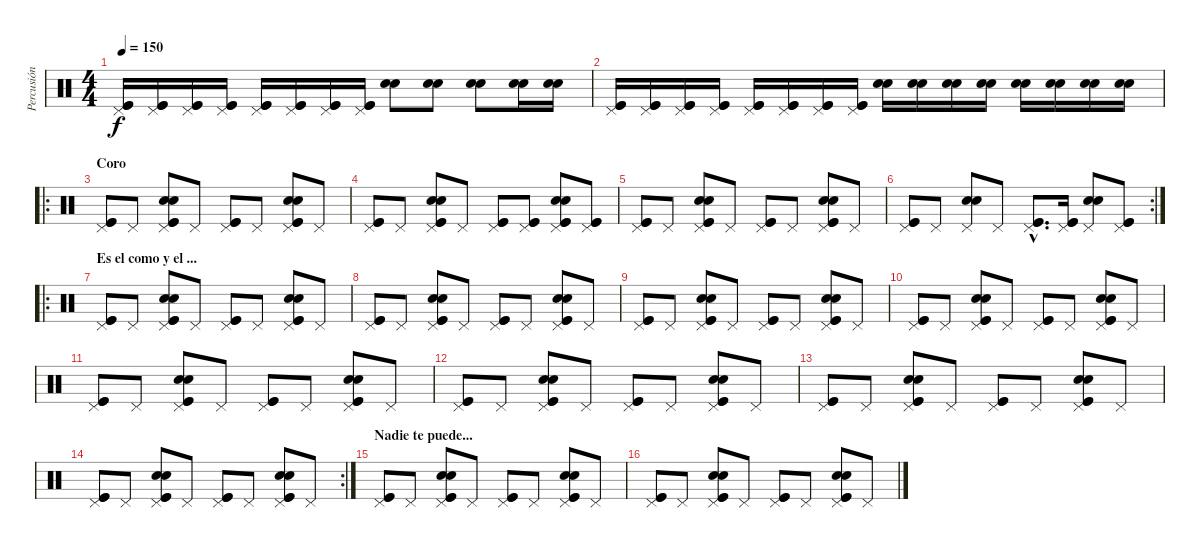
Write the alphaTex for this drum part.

\track ("Percusión" "Percusión") {instrument percussion}
\staff {score}
\articulation defaults
\ts (4 4)
\tempo 150
\clef neutral
\ks c
("Pedal Hi-Hat (hit)" "Kick (hit)" "Kick (hit)").16{dy f} ("Pedal Hi-Hat (hit)" "Kick (hit)" "Kick (hit)").16 ("Pedal Hi-Hat (hit)" "Kick (hit)" "Kick (hit)").16 ("Pedal Hi-Hat (hit)" "Kick (hit)" "Kick (hit)").16 ("Pedal Hi-Hat (hit)" "Kick (hit)" "Kick (hit)").16 ("Pedal Hi-Hat (hit)" "Kick (hit)" "Kick (hit)").16 ("Pedal Hi-Hat (hit)" "Kick (hit)" "Kick (hit)").16 ("Pedal Hi-Hat (hit)" "Kick (hit)" "Kick (hit)").16 ("Snare (hit) 2" "Snare (hit) 2").8 ("Snare (hit) 2" "Snare (hit) 2").8 ("Snare (hit) 2" "Snare (hit) 2").8 ("Snare (hit) 2" "Snare (hit) 2").16 ("Snare (hit) 2" "Snare (hit) 2").16 |
("Pedal Hi-Hat (hit)" "Kick (hit)" "Kick (hit)").16 ("Pedal Hi-Hat (hit)" "Kick (hit)" "Kick (hit)").16 ("Pedal Hi-Hat (hit)" "Kick (hit)" "Kick (hit)").16 ("Pedal Hi-Hat (hit)" "Kick (hit)" "Kick (hit)").16 ("Pedal Hi-Hat (hit)" "Kick (hit)" "Kick (hit)").16 ("Pedal Hi-Hat (hit)" "Kick (hit)" "Kick (hit)").16 ("Pedal Hi-Hat (hit)" "Kick (hit)" "Kick (hit)").16 ("Pedal Hi-Hat (hit)" "Kick (hit)" "Kick (hit)").16 ("Snare (hit) 2" "Snare (hit) 2").16 ("Snare (hit) 2" "Snare (hit) 2").16 ("Snare (hit) 2" "Snare (hit) 2").16 ("Snare (hit) 2" "Snare (hit) 2").16 ("Snare (hit) 2" "Snare (hit) 2").16 ("Snare (hit) 2" "Snare (hit) 2").16 ("Snare (hit) 2" "Snare (hit) 2").16 ("Snare (hit) 2" "Snare (hit) 2").16 |
\ro
\section ("" "Coro")
("Pedal Hi-Hat (hit)" "Kick (hit)" "Kick (hit)").8 "Pedal Hi-Hat (hit)".8 ("Pedal Hi-Hat (hit)" "Snare (hit) 2" "Snare (hit) 2" "Kick (hit)" "Kick (hit)").8 "Pedal Hi-Hat (hit)".8 ("Pedal Hi-Hat (hit)" "Kick (hit)" "Kick (hit)").8 "Pedal Hi-Hat (hit)".8 ("Pedal Hi-Hat (hit)" "Snare (hit) 2" "Snare (hit) 2" "Kick (hit)" "Kick (hit)").8 "Pedal Hi-Hat (hit)".8 |
("Pedal Hi-Hat (hit)" "Kick (hit)" "Kick (hit)").8 "Pedal Hi-Hat (hit)".8 ("Pedal Hi-Hat (hit)" "Snare (hit) 2" "Snare (hit) 2" "Kick (hit)" "Kick (hit)").8 "Pedal Hi-Hat (hit)".8 ("Pedal Hi-Hat (hit)" "Kick (hit)" "Kick (hit)").8 ("Pedal Hi-Hat (hit)" "Kick (hit)" "Kick (hit)").8 ("Pedal Hi-Hat (hit)" "Snare (hit) 2" "Snare (hit) 2" "Kick (hit)" "Kick (hit)").8 ("Pedal Hi-Hat (hit)" "Kick (hit)" "Kick (hit)").8 |
("Pedal Hi-Hat (hit)" "Kick (hit)" "Kick (hit)").8 "Pedal Hi-Hat (hit)".8 ("Pedal Hi-Hat (hit)" "Snare (hit) 2" "Snare (hit) 2" "Kick (hit)" "Kick (hit)").8 "Pedal Hi-Hat (hit)".8 ("Pedal Hi-Hat (hit)" "Kick (hit)" "Kick (hit)").8 "Pedal Hi-Hat (hit)".8 ("Pedal Hi-Hat (hit)" "Snare (hit) 2" "Snare (hit) 2" "Kick (hit)" "Kick (hit)").8 "Pedal Hi-Hat (hit)".8 |
\rc 2
("Pedal Hi-Hat (hit)" "Kick (hit)" "Kick (hit)").8 "Pedal Hi-Hat (hit)".8 ("Pedal Hi-Hat (hit)" "Snare (hit) 2" "Snare (hit) 2").8 "Pedal Hi-Hat (hit)".8 ("Pedal Hi-Hat (hit)"{hac} "Kick (hit)"{hac} "Kick (hit)"{hac}).8{d} ("Pedal Hi-Hat (hit)" "Kick (hit)" "Kick (hit)").16 ("Pedal Hi-Hat (hit)" "Snare (hit) 2" "Snare (hit) 2").8 ("Pedal Hi-Hat (hit)" "Kick (hit)" "Kick (hit)").8 |
\ro
\section ("" "Es el como y el ...")
("Pedal Hi-Hat (hit)" "Kick (hit)" "Kick (hit)").8 "Pedal Hi-Hat (hit)".8 ("Pedal Hi-Hat (hit)" "Snare (hit) 2" "Snare (hit) 2" "Kick (hit)" "Kick (hit)").8 "Pedal Hi-Hat (hit)".8 ("Pedal Hi-Hat (hit)" "Kick (hit)" "Kick (hit)").8 "Pedal Hi-Hat (hit)".8 ("Pedal Hi-Hat (hit)" "Snare (hit) 2" "Snare (hit) 2" "Kick (hit)" "Kick (hit)").8 "Pedal Hi-Hat (hit)".8 |
("Pedal Hi-Hat (hit)" "Kick (hit)" "Kick (hit)").8 "Pedal Hi-Hat (hit)".8 ("Pedal Hi-Hat (hit)" "Snare (hit) 2" "Snare (hit) 2" "Kick (hit)" "Kick (hit)").8 "Pedal Hi-Hat (hit)".8 ("Pedal Hi-Hat (hit)" "Kick (hit)" "Kick (hit)").8 "Pedal Hi-Hat (hit)".8 ("Pedal Hi-Hat (hit)" "Snare (hit) 2" "Snare (hit) 2" "Kick (hit)" "Kick (hit)").8 "Pedal Hi-Hat (hit)".8 |
("Pedal Hi-Hat (hit)" "Kick (hit)" "Kick (hit)").8 "Pedal Hi-Hat (hit)".8 ("Pedal Hi-Hat (hit)" "Snare (hit) 2" "Snare (hit) 2" "Kick (hit)" "Kick (hit)").8 "Pedal Hi-Hat (hit)".8 ("Pedal Hi-Hat (hit)" "Kick (hit)" "Kick (hit)").8 "Pedal Hi-Hat (hit)".8 ("Pedal Hi-Hat (hit)" "Snare (hit) 2" "Snare (hit) 2" "Kick (hit)" "Kick (hit)").8 "Pedal Hi-Hat (hit)".8 |
("Pedal Hi-Hat (hit)" "Kick (hit)" "Kick (hit)").8 "Pedal Hi-Hat (hit)".8 ("Pedal Hi-Hat (hit)" "Snare (hit) 2" "Snare (hit) 2" "Kick (hit)" "Kick (hit)").8 "Pedal Hi-Hat (hit)".8 ("Pedal Hi-Hat (hit)" "Kick (hit)" "Kick (hit)").8 "Pedal Hi-Hat (hit)".8 ("Pedal Hi-Hat (hit)" "Snare (hit) 2" "Snare (hit) 2" "Kick (hit)" "Kick (hit)").8 "Pedal Hi-Hat (hit)".8 |
("Pedal Hi-Hat (hit)" "Kick (hit)" "Kick (hit)").8 "Pedal Hi-Hat (hit)".8 ("Pedal Hi-Hat (hit)" "Snare (hit) 2" "Snare (hit) 2" "Kick (hit)" "Kick (hit)").8 "Pedal Hi-Hat (hit)".8 ("Pedal Hi-Hat (hit)" "Kick (hit)" "Kick (hit)").8 "Pedal Hi-Hat (hit)".8 ("Pedal Hi-Hat (hit)" "Snare (hit) 2" "Snare (hit) 2" "Kick (hit)" "Kick (hit)").8 "Pedal Hi-Hat (hit)".8 |
("Pedal Hi-Hat (hit)" "Kick (hit)" "Kick (hit)").8 "Pedal Hi-Hat (hit)".8 ("Pedal Hi-Hat (hit)" "Snare (hit) 2" "Snare (hit) 2" "Kick (hit)" "Kick (hit)").8 "Pedal Hi-Hat (hit)".8 ("Pedal Hi-Hat (hit)" "Kick (hit)" "Kick (hit)").8 "Pedal Hi-Hat (hit)".8 ("Pedal Hi-Hat (hit)" "Snare (hit) 2" "Snare (hit) 2" "Kick (hit)" "Kick (hit)").8 "Pedal Hi-Hat (hit)".8 |
("Pedal Hi-Hat (hit)" "Kick (hit)" "Kick (hit)").8 "Pedal Hi-Hat (hit)".8 ("Pedal Hi-Hat (hit)" "Snare (hit) 2" "Snare (hit) 2" "Kick (hit)" "Kick (hit)").8 "Pedal Hi-Hat (hit)".8 ("Pedal Hi-Hat (hit)" "Kick (hit)" "Kick (hit)").8 "Pedal Hi-Hat (hit)".8 ("Pedal Hi-Hat (hit)" "Snare (hit) 2" "Snare (hit) 2" "Kick (hit)" "Kick (hit)").8 "Pedal Hi-Hat (hit)".8 |
\rc 2
("Pedal Hi-Hat (hit)" "Kick (hit)" "Kick (hit)").8 "Pedal Hi-Hat (hit)".8 ("Pedal Hi-Hat (hit)" "Snare (hit) 2" "Snare (hit) 2" "Kick (hit)" "Kick (hit)").8 "Pedal Hi-Hat (hit)".8 ("Pedal Hi-Hat (hit)" "Kick (hit)" "Kick (hit)").8 "Pedal Hi-Hat (hit)".8 ("Pedal Hi-Hat (hit)" "Snare (hit) 2" "Snare (hit) 2" "Kick (hit)" "Kick (hit)").8 "Pedal Hi-Hat (hit)".8 |
\section ("" "Nadie te puede...")
("Pedal Hi-Hat (hit)" "Kick (hit)" "Kick (hit)").8 "Pedal Hi-Hat (hit)".8 ("Pedal Hi-Hat (hit)" "Snare (hit) 2" "Snare (hit) 2" "Kick (hit)" "Kick (hit)").8 "Pedal Hi-Hat (hit)".8 ("Pedal Hi-Hat (hit)" "Kick (hit)" "Kick (hit)").8 "Pedal Hi-Hat (hit)".8 ("Pedal Hi-Hat (hit)" "Snare (hit) 2" "Snare (hit) 2" "Kick (hit)" "Kick (hit)").8 "Pedal Hi-Hat (hit)".8 |
("Pedal Hi-Hat (hit)" "Kick (hit)" "Kick (hit)").8 "Pedal Hi-Hat (hit)".8 ("Pedal Hi-Hat (hit)" "Snare (hit) 2" "Snare (hit) 2" "Kick (hit)" "Kick (hit)").8 "Pedal Hi-Hat (hit)".8 ("Pedal Hi-Hat (hit)" "Kick (hit)" "Kick (hit)").8 "Pedal Hi-Hat (hit)".8 ("Pedal Hi-Hat (hit)" "Snare (hit) 2" "Snare (hit) 2" "Kick (hit)" "Kick (hit)").8 "Pedal Hi-Hat (hit)".8
